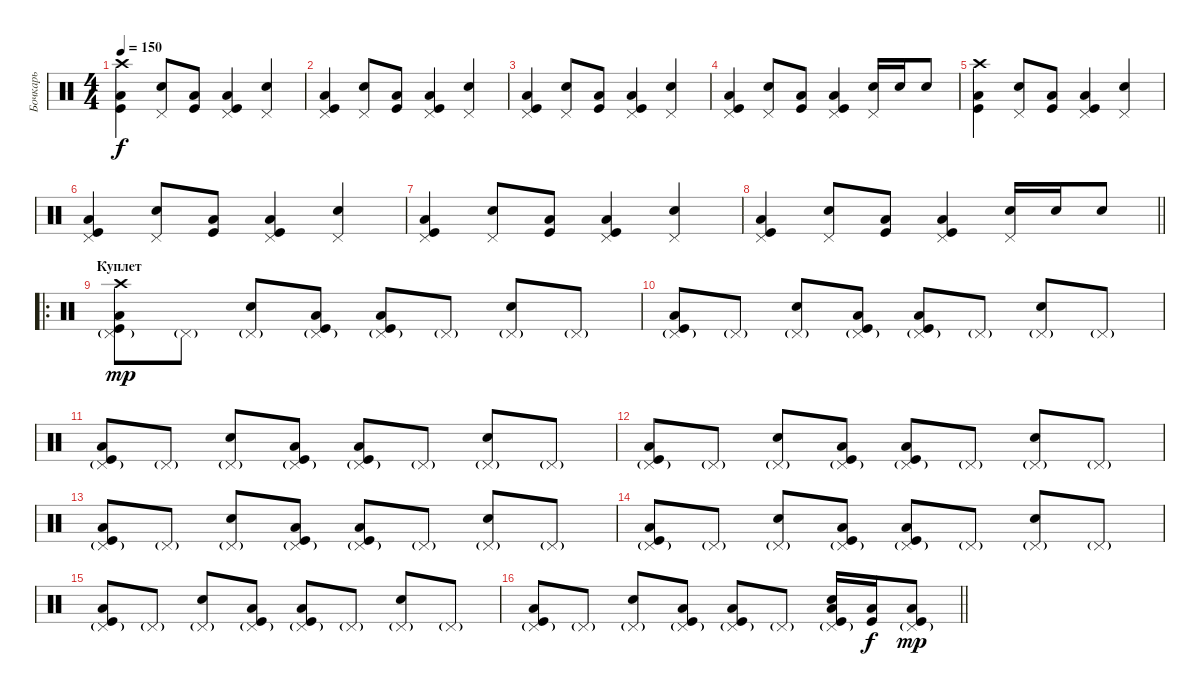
\track ("Бочкарь" "Бочкарь") {instrument percussion}
\staff {score}
\articulation defaults
\ts (4 4)
\tempo 150
\clef neutral
\ks c
("Crash high (hit)" "Low Tom (hit)" "Kick (hit)").4{dy f} ("Pedal Hi-Hat (hit)" "Electric Snare (hit)").8 ("Low Tom (hit)" "Kick (hit)").8 ("Pedal Hi-Hat (hit)" "Low Tom (hit)" "Kick (hit)").4 ("Pedal Hi-Hat (hit)" "Electric Snare (hit)").4 |
("Pedal Hi-Hat (hit)" "Low Tom (hit)" "Kick (hit)").4 ("Pedal Hi-Hat (hit)" "Electric Snare (hit)").8 ("Low Tom (hit)" "Kick (hit)").8 ("Pedal Hi-Hat (hit)" "Low Tom (hit)" "Kick (hit)").4 ("Pedal Hi-Hat (hit)" "Electric Snare (hit)").4 |
("Pedal Hi-Hat (hit)" "Low Tom (hit)" "Kick (hit)").4 ("Pedal Hi-Hat (hit)" "Electric Snare (hit)").8 ("Low Tom (hit)" "Kick (hit)").8 ("Pedal Hi-Hat (hit)" "Low Tom (hit)" "Kick (hit)").4 ("Pedal Hi-Hat (hit)" "Electric Snare (hit)").4 |
("Pedal Hi-Hat (hit)" "Low Tom (hit)" "Kick (hit)").4 ("Pedal Hi-Hat (hit)" "Electric Snare (hit)").8 ("Low Tom (hit)" "Kick (hit)").8 ("Pedal Hi-Hat (hit)" "Low Tom (hit)" "Kick (hit)").4 ("Pedal Hi-Hat (hit)" "Snare (hit) 2").16 "Snare (hit) 2".16 "Electric Snare (hit)".8 |
("Crash high (hit)" "Low Tom (hit)" "Kick (hit)").4 ("Pedal Hi-Hat (hit)" "Electric Snare (hit)").8 ("Low Tom (hit)" "Kick (hit)").8 ("Pedal Hi-Hat (hit)" "Low Tom (hit)" "Kick (hit)").4 ("Pedal Hi-Hat (hit)" "Electric Snare (hit)").4 |
("Pedal Hi-Hat (hit)" "Low Tom (hit)" "Kick (hit)").4 ("Pedal Hi-Hat (hit)" "Electric Snare (hit)").8 ("Low Tom (hit)" "Kick (hit)").8 ("Pedal Hi-Hat (hit)" "Low Tom (hit)" "Kick (hit)").4 ("Pedal Hi-Hat (hit)" "Electric Snare (hit)").4 |
("Pedal Hi-Hat (hit)" "Low Tom (hit)" "Kick (hit)").4 ("Pedal Hi-Hat (hit)" "Electric Snare (hit)").8 ("Low Tom (hit)" "Kick (hit)").8 ("Pedal Hi-Hat (hit)" "Low Tom (hit)" "Kick (hit)").4 ("Pedal Hi-Hat (hit)" "Electric Snare (hit)").4 |
\barLineRight lightlight
("Pedal Hi-Hat (hit)" "Low Tom (hit)" "Kick (hit)").4 ("Pedal Hi-Hat (hit)" "Electric Snare (hit)").8 ("Low Tom (hit)" "Kick (hit)").8 ("Pedal Hi-Hat (hit)" "Low Tom (hit)" "Kick (hit)").4 ("Pedal Hi-Hat (hit)" "Snare (hit) 2").16 "Snare (hit) 2".16 "Electric Snare (hit)".8 |
\ro
\section ("" "Куплет")
("Pedal Hi-Hat (hit)"{g} "Crash high (hit)" "Low Tom (hit)" "Kick (hit)").8{dy mp} "Pedal Hi-Hat (hit)"{g}.8 ("Pedal Hi-Hat (hit)"{g} "Electric Snare (hit)").8 ("Pedal Hi-Hat (hit)"{g} "Low Tom (hit)" "Kick (hit)").8 ("Pedal Hi-Hat (hit)"{g} "Low Tom (hit)" "Kick (hit)").8 "Pedal Hi-Hat (hit)"{g}.8 ("Pedal Hi-Hat (hit)"{g} "Electric Snare (hit)").8 "Pedal Hi-Hat (hit)"{g}.8 |
("Pedal Hi-Hat (hit)"{g} "Low Tom (hit)" "Kick (hit)").8 "Pedal Hi-Hat (hit)"{g}.8 ("Pedal Hi-Hat (hit)"{g} "Electric Snare (hit)").8 ("Pedal Hi-Hat (hit)"{g} "Low Tom (hit)" "Kick (hit)").8 ("Pedal Hi-Hat (hit)"{g} "Low Tom (hit)" "Kick (hit)").8 "Pedal Hi-Hat (hit)"{g}.8 ("Pedal Hi-Hat (hit)"{g} "Electric Snare (hit)").8 "Pedal Hi-Hat (hit)"{g}.8 |
("Pedal Hi-Hat (hit)"{g} "Low Tom (hit)" "Kick (hit)").8 "Pedal Hi-Hat (hit)"{g}.8 ("Pedal Hi-Hat (hit)"{g} "Electric Snare (hit)").8 ("Pedal Hi-Hat (hit)"{g} "Low Tom (hit)" "Kick (hit)").8 ("Pedal Hi-Hat (hit)"{g} "Low Tom (hit)" "Kick (hit)").8 "Pedal Hi-Hat (hit)"{g}.8 ("Pedal Hi-Hat (hit)"{g} "Electric Snare (hit)").8 "Pedal Hi-Hat (hit)"{g}.8 |
("Pedal Hi-Hat (hit)"{g} "Low Tom (hit)" "Kick (hit)").8 "Pedal Hi-Hat (hit)"{g}.8 ("Pedal Hi-Hat (hit)"{g} "Electric Snare (hit)").8 ("Pedal Hi-Hat (hit)"{g} "Low Tom (hit)" "Kick (hit)").8 ("Pedal Hi-Hat (hit)"{g} "Low Tom (hit)" "Kick (hit)").8 "Pedal Hi-Hat (hit)"{g}.8 ("Pedal Hi-Hat (hit)"{g} "Electric Snare (hit)").8 "Pedal Hi-Hat (hit)"{g}.8 |
("Pedal Hi-Hat (hit)"{g} "Low Tom (hit)" "Kick (hit)").8 "Pedal Hi-Hat (hit)"{g}.8 ("Pedal Hi-Hat (hit)"{g} "Electric Snare (hit)").8 ("Pedal Hi-Hat (hit)"{g} "Low Tom (hit)" "Kick (hit)").8 ("Pedal Hi-Hat (hit)"{g} "Low Tom (hit)" "Kick (hit)").8 "Pedal Hi-Hat (hit)"{g}.8 ("Pedal Hi-Hat (hit)"{g} "Electric Snare (hit)").8 "Pedal Hi-Hat (hit)"{g}.8 |
("Pedal Hi-Hat (hit)"{g} "Low Tom (hit)" "Kick (hit)").8 "Pedal Hi-Hat (hit)"{g}.8 ("Pedal Hi-Hat (hit)"{g} "Electric Snare (hit)").8 ("Pedal Hi-Hat (hit)"{g} "Low Tom (hit)" "Kick (hit)").8 ("Pedal Hi-Hat (hit)"{g} "Low Tom (hit)" "Kick (hit)").8 "Pedal Hi-Hat (hit)"{g}.8 ("Pedal Hi-Hat (hit)"{g} "Electric Snare (hit)").8 "Pedal Hi-Hat (hit)"{g}.8 |
("Pedal Hi-Hat (hit)"{g} "Low Tom (hit)" "Kick (hit)").8 "Pedal Hi-Hat (hit)"{g}.8 ("Pedal Hi-Hat (hit)"{g} "Electric Snare (hit)").8 ("Pedal Hi-Hat (hit)"{g} "Low Tom (hit)" "Kick (hit)").8 ("Pedal Hi-Hat (hit)"{g} "Low Tom (hit)" "Kick (hit)").8 "Pedal Hi-Hat (hit)"{g}.8 ("Pedal Hi-Hat (hit)"{g} "Electric Snare (hit)").8 "Pedal Hi-Hat (hit)"{g}.8 |
\barLineRight lightlight
("Pedal Hi-Hat (hit)"{g} "Low Tom (hit)" "Kick (hit)").8 "Pedal Hi-Hat (hit)"{g}.8 ("Pedal Hi-Hat (hit)"{g} "Electric Snare (hit)").8 ("Pedal Hi-Hat (hit)"{g} "Low Tom (hit)" "Kick (hit)").8 ("Pedal Hi-Hat (hit)"{g} "Low Tom (hit)" "Kick (hit)").8 "Pedal Hi-Hat (hit)"{g}.8 ("Pedal Hi-Hat (hit)"{g} "Electric Snare (hit)" "Low Tom (hit)" "Kick (hit)").16 ("Low Tom (hit)" "Kick (hit)").16{dy f} ("Pedal Hi-Hat (hit)"{g} "Low Tom (hit)" "Kick (hit)").8{dy mp}
